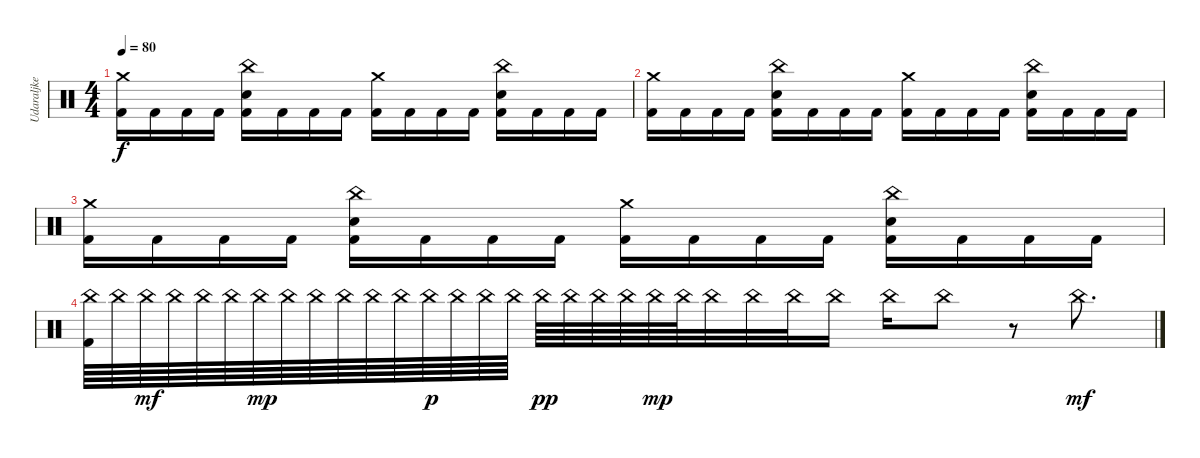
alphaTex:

\track ("Udaraljke" "Udaraljke") {instrument percussion}
\staff {score}
\articulation defaults
\ts (4 4)
\tempo 80
\clef neutral
\ks c
("Kick (hit) 2" "Crash medium (hit)").16{dy f} "Kick (hit) 2".16 "Kick (hit) 2".16 "Kick (hit) 2".16 ("Kick (hit) 2" "Snare (hit) 2" "China (hit)").16 "Kick (hit) 2".16 "Kick (hit) 2".16 "Kick (hit) 2".16 ("Kick (hit) 2" "Crash medium (hit)").16 "Kick (hit) 2".16 "Kick (hit) 2".16 "Kick (hit) 2".16 ("Kick (hit) 2" "China (hit)" "Snare (hit) 2").16 "Kick (hit) 2".16 "Kick (hit) 2".16 "Kick (hit) 2".16 |
("Kick (hit) 2" "Crash medium (hit)").16 "Kick (hit) 2".16 "Kick (hit) 2".16 "Kick (hit) 2".16 ("Kick (hit) 2" "Snare (hit) 2" "China (hit)").16 "Kick (hit) 2".16 "Kick (hit) 2".16 "Kick (hit) 2".16 ("Kick (hit) 2" "Crash medium (hit)").16 "Kick (hit) 2".16 "Kick (hit) 2".16 "Kick (hit) 2".16 ("Kick (hit) 2" "China (hit)" "Snare (hit) 2").16 "Kick (hit) 2".16 "Kick (hit) 2".16 "Kick (hit) 2".16 |
("Kick (hit) 2" "Crash medium (hit)").16 "Kick (hit) 2".16 "Kick (hit) 2".16 "Kick (hit) 2".16 ("Kick (hit) 2" "Snare (hit) 2" "China (hit)").16 "Kick (hit) 2".16 "Kick (hit) 2".16 "Kick (hit) 2".16 ("Kick (hit) 2" "Crash medium (hit)").16 "Kick (hit) 2".16 "Kick (hit) 2".16 "Kick (hit) 2".16 ("Kick (hit) 2" "China (hit)" "Snare (hit) 2").16 "Kick (hit) 2".16 "Kick (hit) 2".16 "Kick (hit) 2".16 |
("China (hit)" "Kick (hit) 2").64 "China (hit)".64 "China (hit)".64{dy mf} "China (hit)".64 "China (hit)".64 "China (hit)".64 "China (hit)".64{dy mp} "China (hit)".64 "China (hit)".64 "China (hit)".64 "China (hit)".64 "China (hit)".64 "China (hit)".64{dy p} "China (hit)".64 "China (hit)".64 "China (hit)".64 "China (hit)".64{dy pp} "China (hit)".64 "China (hit)".64 "China (hit)".64 "China (hit)".64{dy mp} "China (hit)".64 "China (hit)".32 "China (hit)".32 "China (hit)".32 "China (hit)".16 "China (hit)".16 "China (hit)".8 r.8 "China (hit)".8{d dy mf}
